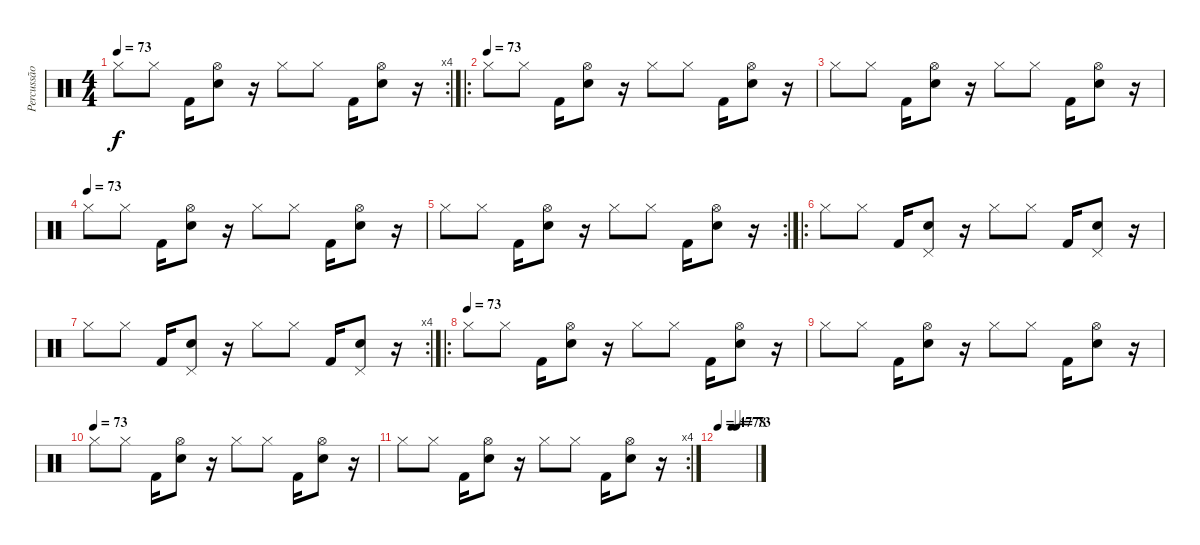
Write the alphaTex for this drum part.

\track ("Percussão" "Percussão") {instrument percussion}
\staff {score}
\articulation defaults
\rc 4
\ts (4 4)
\tempo 73
\clef neutral
\ks c "Hi-Hat (closed)".8{dy f} "Hi-Hat (closed)".8 "Kick (hit) 2".16
("Snare (hit) 2" "Hi-Hat (open)").8 r.16 "Hi-Hat (closed)".8 "Hi-Hat (closed)".8 "Kick (hit) 2".16 ("Snare (hit) 2" "Hi-Hat (open)").8 r.16 |
\ro
\tempo (73)
"Hi-Hat (closed)".8 "Hi-Hat (closed)".8 "Kick (hit) 2".16 ("Snare (hit) 2" "Hi-Hat (open)").8 r.16 "Hi-Hat (closed)".8 "Hi-Hat (closed)".8 "Kick (hit) 2".16 ("Snare (hit) 2" "Hi-Hat (open)").8 r.16 |
"Hi-Hat (closed)".8 "Hi-Hat (closed)".8 "Kick (hit) 2".16 ("Snare (hit) 2" "Hi-Hat (open)").8 r.16 "Hi-Hat (closed)".8 "Hi-Hat (closed)".8 "Kick (hit) 2".16 ("Snare (hit) 2" "Hi-Hat (open)").8 r.16 |
\tempo (73)
"Hi-Hat (closed)".8 "Hi-Hat (closed)".8 "Kick (hit) 2".16 ("Snare (hit) 2" "Hi-Hat (open)").8 r.16 "Hi-Hat (closed)".8 "Hi-Hat (closed)".8 "Kick (hit) 2".16 ("Snare (hit) 2" "Hi-Hat (open)").8 r.16 |
\rc 2 "Hi-Hat (closed)".8 "Hi-Hat (closed)".8 "Kick (hit) 2".16
("Snare (hit) 2" "Hi-Hat (open)").8 r.16 "Hi-Hat (closed)".8 "Hi-Hat (closed)".8 "Kick (hit) 2".16 ("Snare (hit) 2" "Hi-Hat (open)").8 r.16 |
\ro "Hi-Hat (closed)".8 "Hi-Hat (closed)".8 "Kick (hit) 2".16
("Snare (hit) 2" "Pedal Hi-Hat (hit)").8 r.16 "Hi-Hat (closed)".8 "Hi-Hat (closed)".8 "Kick (hit) 2".16 ("Snare (hit) 2" "Pedal Hi-Hat (hit)").8 r.16 |
\rc 4 "Hi-Hat (closed)".8 "Hi-Hat (closed)".8 "Kick (hit) 2".16
("Snare (hit) 2" "Pedal Hi-Hat (hit)").8 r.16 "Hi-Hat (closed)".8 "Hi-Hat (closed)".8 "Kick (hit) 2".16 ("Snare (hit) 2" "Pedal Hi-Hat (hit)").8 r.16 |
\ro
\tempo (73)
"Hi-Hat (closed)".8 "Hi-Hat (closed)".8 "Kick (hit) 2".16 ("Snare (hit) 2" "Hi-Hat (open)").8 r.16 "Hi-Hat (closed)".8 "Hi-Hat (closed)".8 "Kick (hit) 2".16 ("Snare (hit) 2" "Hi-Hat (open)").8 r.16 |
"Hi-Hat (closed)".8 "Hi-Hat (closed)".8 "Kick (hit) 2".16 ("Snare (hit) 2" "Hi-Hat (open)").8 r.16 "Hi-Hat (closed)".8 "Hi-Hat (closed)".8 "Kick (hit) 2".16 ("Snare (hit) 2" "Hi-Hat (open)").8 r.16 |
\tempo (73)
"Hi-Hat (closed)".8 "Hi-Hat (closed)".8 "Kick (hit) 2".16 ("Snare (hit) 2" "Hi-Hat (open)").8 r.16 "Hi-Hat (closed)".8 "Hi-Hat (closed)".8 "Kick (hit) 2".16 ("Snare (hit) 2" "Hi-Hat (open)").8 r.16 |
\rc 4 "Hi-Hat (closed)".8 "Hi-Hat (closed)".8 "Kick (hit) 2".16
("Snare (hit) 2" "Hi-Hat (open)").8 r.16 "Hi-Hat (closed)".8 "Hi-Hat (closed)".8 "Kick (hit) 2".16 ("Snare (hit) 2" "Hi-Hat (open)").8 r.16 |
\tempo 47
\tempo (78 0.375)
\tempo (73 0.5)
